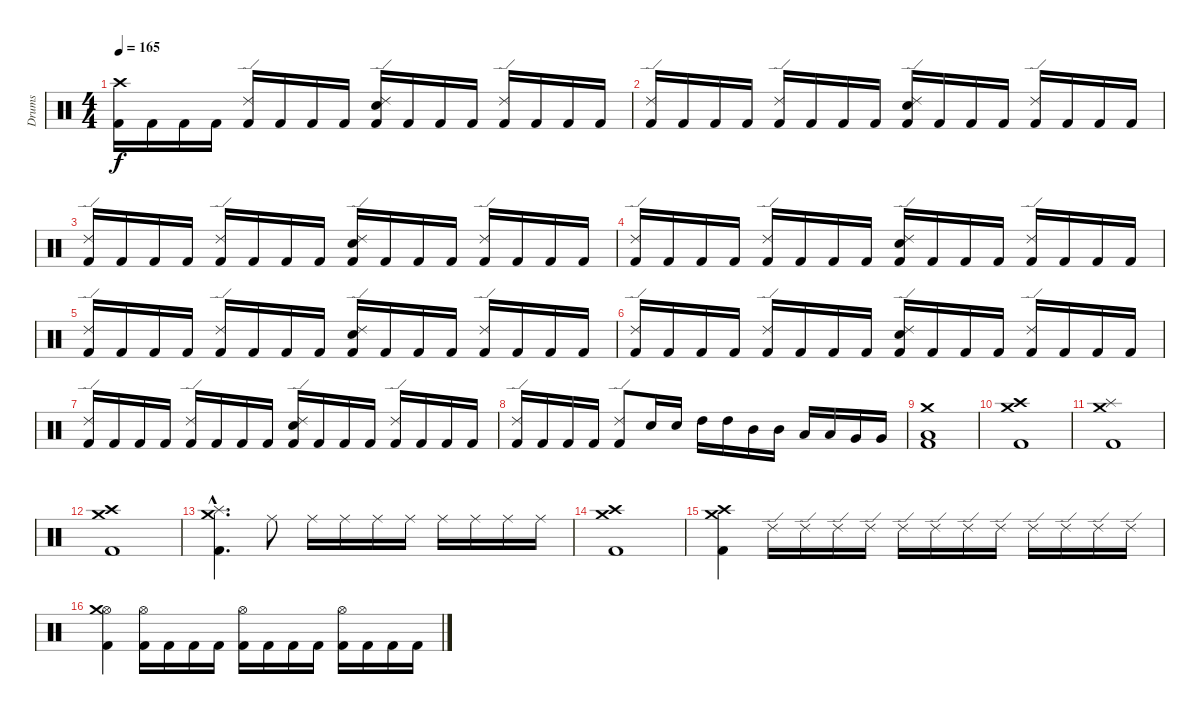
\track ("Drums" "Drums") {instrument percussion}
\staff {score}
\articulation defaults
\ts (4 4)
\tempo 165
\clef neutral
\ks c
("Kick (hit) 2" "Crash high (hit)").16{dy f} "Kick (hit) 2".16 "Kick (hit) 2".16 "Kick (hit) 2".16 ("Kick (hit) 2" "Ride (edge) 2").16 "Kick (hit) 2".16 "Kick (hit) 2".16 "Kick (hit) 2".16 ("Kick (hit) 2" "Electric Snare (hit)" "Ride (edge) 2").16 "Kick (hit) 2".16 "Kick (hit) 2".16 "Kick (hit) 2".16 ("Kick (hit) 2" "Ride (edge) 2").16 "Kick (hit) 2".16 "Kick (hit) 2".16 "Kick (hit) 2".16 |
("Kick (hit) 2" "Ride (edge) 2").16 "Kick (hit) 2".16 "Kick (hit) 2".16 "Kick (hit) 2".16 ("Kick (hit) 2" "Ride (edge) 2").16 "Kick (hit) 2".16 "Kick (hit) 2".16 "Kick (hit) 2".16 ("Kick (hit) 2" "Electric Snare (hit)" "Ride (edge) 2").16 "Kick (hit) 2".16 "Kick (hit) 2".16 "Kick (hit) 2".16 ("Kick (hit) 2" "Ride (edge) 2").16 "Kick (hit) 2".16 "Kick (hit) 2".16 "Kick (hit) 2".16 |
("Kick (hit) 2" "Ride (edge) 2").16 "Kick (hit) 2".16 "Kick (hit) 2".16 "Kick (hit) 2".16 ("Kick (hit) 2" "Ride (edge) 2").16 "Kick (hit) 2".16 "Kick (hit) 2".16 "Kick (hit) 2".16 ("Kick (hit) 2" "Electric Snare (hit)" "Ride (edge) 2").16 "Kick (hit) 2".16 "Kick (hit) 2".16 "Kick (hit) 2".16 ("Kick (hit) 2" "Ride (edge) 2").16 "Kick (hit) 2".16 "Kick (hit) 2".16 "Kick (hit) 2".16 |
("Kick (hit) 2" "Ride (edge) 2").16 "Kick (hit) 2".16 "Kick (hit) 2".16 "Kick (hit) 2".16 ("Kick (hit) 2" "Ride (edge) 2").16 "Kick (hit) 2".16 "Kick (hit) 2".16 "Kick (hit) 2".16 ("Kick (hit) 2" "Electric Snare (hit)" "Ride (edge) 2").16 "Kick (hit) 2".16 "Kick (hit) 2".16 "Kick (hit) 2".16 ("Kick (hit) 2" "Ride (edge) 2").16 "Kick (hit) 2".16 "Kick (hit) 2".16 "Kick (hit) 2".16 |
("Kick (hit) 2" "Ride (edge) 2").16 "Kick (hit) 2".16 "Kick (hit) 2".16 "Kick (hit) 2".16 ("Kick (hit) 2" "Ride (edge) 2").16 "Kick (hit) 2".16 "Kick (hit) 2".16 "Kick (hit) 2".16 ("Kick (hit) 2" "Electric Snare (hit)" "Ride (edge) 2").16 "Kick (hit) 2".16 "Kick (hit) 2".16 "Kick (hit) 2".16 ("Kick (hit) 2" "Ride (edge) 2").16 "Kick (hit) 2".16 "Kick (hit) 2".16 "Kick (hit) 2".16 |
("Kick (hit) 2" "Ride (edge) 2").16 "Kick (hit) 2".16 "Kick (hit) 2".16 "Kick (hit) 2".16 ("Kick (hit) 2" "Ride (edge) 2").16 "Kick (hit) 2".16 "Kick (hit) 2".16 "Kick (hit) 2".16 ("Kick (hit) 2" "Electric Snare (hit)" "Ride (edge) 2").16 "Kick (hit) 2".16 "Kick (hit) 2".16 "Kick (hit) 2".16 ("Kick (hit) 2" "Ride (edge) 2").16 "Kick (hit) 2".16 "Kick (hit) 2".16 "Kick (hit) 2".16 |
("Kick (hit) 2" "Ride (edge) 2").16 "Kick (hit) 2".16 "Kick (hit) 2".16 "Kick (hit) 2".16 ("Kick (hit) 2" "Ride (edge) 2").16 "Kick (hit) 2".16 "Kick (hit) 2".16 "Kick (hit) 2".16 ("Kick (hit) 2" "Electric Snare (hit)" "Ride (edge) 2").16 "Kick (hit) 2".16 "Kick (hit) 2".16 "Kick (hit) 2".16 ("Kick (hit) 2" "Ride (edge) 2").16 "Kick (hit) 2".16 "Kick (hit) 2".16 "Kick (hit) 2".16 |
("Kick (hit) 2" "Ride (edge) 2").16 "Kick (hit) 2".16 "Kick (hit) 2".16 "Kick (hit) 2".16 ("Kick (hit) 2" "Ride (edge) 2").8 "Electric Snare (hit)".16 "Electric Snare (hit)".16 "High Tom (hit)".16 "High Tom (hit)".16 "Mid Tom (hit)".16 "Mid Tom (hit)".16 "Low Tom (hit)".16 "Low Tom (hit)".16 "Very Low Tom (hit)".16 "Very Low Tom (hit)".16 |
("Kick (hit) 2" "Low Floor Tom (hit)" "Crash medium (hit)").1 |
("Kick (hit) 2" "Crash high (hit)" "Crash medium (hit)").1 |
("Kick (hit) 2" "Splash (hit)" "Crash medium (hit)").1 |
("Kick (hit) 2" "Crash high (hit)" "Crash medium (hit)").1 |
("Kick (hit) 2"{hac} "Splash (hit)"{hac} "Crash medium (hit)"{hac}).4{d} "Ride (middle)".8 "Ride (middle)".16 "Ride (middle)".16 "Ride (middle)".16 "Ride (middle)".16 "Ride (middle)".16 "Ride (middle)".16 "Ride (middle)".16 "Ride (middle)".16 |
("Kick (hit) 2" "Crash high (hit)" "Crash medium (hit)").1 |
("Kick (hit) 2" "Crash high (hit)" "Crash medium (hit)").4 "Ride (edge) 2".16 "Ride (edge) 2".16 "Ride (edge) 2".16 "Ride (edge) 2".16 "Ride (edge) 2".16 "Ride (edge) 2".16 "Ride (edge) 2".16 "Ride (edge) 2".16 "Ride (edge) 2".16 "Ride (edge) 2".16 "Ride (edge) 2".16 "Ride (edge) 2".16 |
("Kick (hit) 2" "Hi-Hat (open)" "Crash medium (hit)").4 ("Kick (hit) 2" "Hi-Hat (open)").16 "Kick (hit) 2".16 "Kick (hit) 2".16 "Kick (hit) 2".16 ("Kick (hit) 2" "Hi-Hat (open)").16 "Kick (hit) 2".16 "Kick (hit) 2".16 "Kick (hit) 2".16 ("Kick (hit) 2" "Hi-Hat (open)").16 "Kick (hit) 2".16 "Kick (hit) 2".16 "Kick (hit) 2".16
